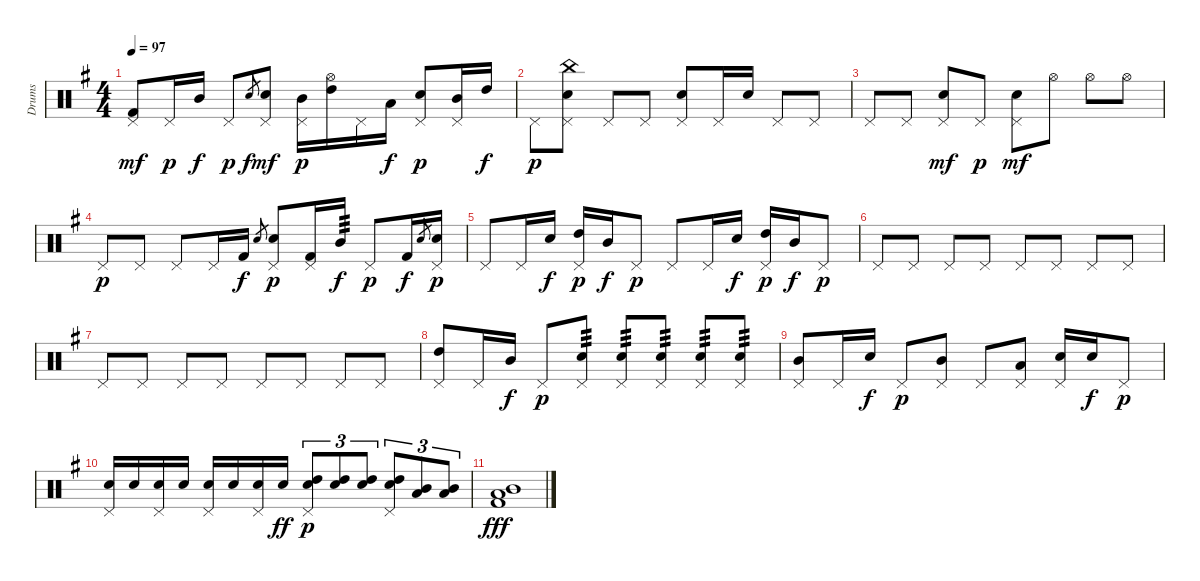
\track ("Drums" "Drums") {instrument percussion}
\staff {score}
\articulation defaults
\ts (4 4)
\tempo 97
\clef neutral
\ks g
("Pedal Hi-Hat (hit)" "Kick (hit) 2").8{dy mf} "Pedal Hi-Hat (hit)".16{dy p} "Mid Tom (hit)".16{dy f} "Pedal Hi-Hat (hit)".8{dy p} "Electric Snare (hit)".8{gr dy f} ("Pedal Hi-Hat (hit)" "Electric Snare (hit)").8{dy mf} ("Pedal Hi-Hat (hit)" "Mid Tom (hit)").16{dy p} ("Hi-Hat (open)" "High Tom (hit)").16 "Pedal Hi-Hat (hit)".16 "Low Tom (hit)".16{dy f} ("Pedal Hi-Hat (hit)" "Electric Snare (hit)").8{dy p} ("Pedal Hi-Hat (hit)" "Mid Tom (hit)").16 "High Tom (hit)".16{dy f} |
"Pedal Hi-Hat (hit)".8{dy p} ("Pedal Hi-Hat (hit)" "Electric Snare (hit)" "China (hit)").8 "Pedal Hi-Hat (hit)".8 "Pedal Hi-Hat (hit)".8 ("Pedal Hi-Hat (hit)" "Electric Snare (hit)").8 "Pedal Hi-Hat (hit)".16 "Electric Snare (hit)".16 "Pedal Hi-Hat (hit)".8 "Pedal Hi-Hat (hit)".8 |
"Pedal Hi-Hat (hit)".8 "Pedal Hi-Hat (hit)".8 ("Pedal Hi-Hat (hit)" "Electric Snare (hit)").8{dy mf} "Pedal Hi-Hat (hit)".8{dy p} ("Pedal Hi-Hat (hit)" "Electric Snare (hit)").8{dy mf} "Hi-Hat (open)".8 "Hi-Hat (open)".8 "Hi-Hat (open)".8 |
"Pedal Hi-Hat (hit)".8{dy p} "Pedal Hi-Hat (hit)".8 "Pedal Hi-Hat (hit)".8 "Pedal Hi-Hat (hit)".16 "Kick (hit) 2".16{dy f} "Electric Snare (hit)".8{gr} ("Pedal Hi-Hat (hit)" "Electric Snare (hit)").8{dy p} ("Pedal Hi-Hat (hit)" "Kick (hit) 2").16 "Mid Tom (hit)".16{tp 3 dy f} "Pedal Hi-Hat (hit)".8{dy p} "Kick (hit) 2".16{dy f} "Electric Snare (hit)".8{gr} ("Pedal Hi-Hat (hit)" "Electric Snare (hit)").16{dy p} |
"Pedal Hi-Hat (hit)".8 "Pedal Hi-Hat (hit)".16 "Electric Snare (hit)".16{dy f} ("Pedal Hi-Hat (hit)" "High Tom (hit)").16{dy p} "Mid Tom (hit)".16{dy f} "Pedal Hi-Hat (hit)".8{dy p} "Pedal Hi-Hat (hit)".8 "Pedal Hi-Hat (hit)".16 "Electric Snare (hit)".16{dy f} ("Pedal Hi-Hat (hit)" "High Tom (hit)").16{dy p} "Mid Tom (hit)".16{dy f} "Pedal Hi-Hat (hit)".8{dy p} |
"Pedal Hi-Hat (hit)".8 "Pedal Hi-Hat (hit)".8 "Pedal Hi-Hat (hit)".8 "Pedal Hi-Hat (hit)".8 "Pedal Hi-Hat (hit)".8 "Pedal Hi-Hat (hit)".8 "Pedal Hi-Hat (hit)".8 "Pedal Hi-Hat (hit)".8 |
"Pedal Hi-Hat (hit)".8 "Pedal Hi-Hat (hit)".8 "Pedal Hi-Hat (hit)".8 "Pedal Hi-Hat (hit)".8 "Pedal Hi-Hat (hit)".8 "Pedal Hi-Hat (hit)".8 "Pedal Hi-Hat (hit)".8 "Pedal Hi-Hat (hit)".8 |
("Pedal Hi-Hat (hit)" "High Tom (hit)").8 "Pedal Hi-Hat (hit)".16 "Mid Tom (hit)".16{dy f} "Pedal Hi-Hat (hit)".8{dy p} ("Pedal Hi-Hat (hit)" "Electric Snare (hit)").8{tp 3} ("Pedal Hi-Hat (hit)" "Electric Snare (hit)").8{tp 3} ("Pedal Hi-Hat (hit)" "Electric Snare (hit)").8{tp 3} ("Pedal Hi-Hat (hit)" "Electric Snare (hit)").8{tp 3} ("Pedal Hi-Hat (hit)" "Electric Snare (hit)").8{tp 3} |
("Pedal Hi-Hat (hit)" "Mid Tom (hit)").8 "Pedal Hi-Hat (hit)".16 "Electric Snare (hit)".16{dy f} "Pedal Hi-Hat (hit)".8{dy p} ("Pedal Hi-Hat (hit)" "Mid Tom (hit)").8 "Pedal Hi-Hat (hit)".8 ("Pedal Hi-Hat (hit)" "Low Tom (hit)").8 ("Pedal Hi-Hat (hit)" "Electric Snare (hit)").16 "Electric Snare (hit)".16{dy f} "Pedal Hi-Hat (hit)".8{dy p} |
("Electric Snare (hit)" "Pedal Hi-Hat (hit)").16 "Electric Snare (hit)".16 ("Electric Snare (hit)" "Pedal Hi-Hat (hit)").16 "Electric Snare (hit)".16 ("Electric Snare (hit)" "Pedal Hi-Hat (hit)").16 "Electric Snare (hit)".16 ("Electric Snare (hit)" "Pedal Hi-Hat (hit)").16 "Electric Snare (hit)".16{dy ff} ("Electric Snare (hit)" "Pedal Hi-Hat (hit)" "High Tom (hit)").8{tu (3 2) dy p} ("Electric Snare (hit)" "High Tom (hit)").8{tu (3 2)} ("Electric Snare (hit)" "High Tom (hit)").8{tu (3 2)} ("Electric Snare (hit)" "Pedal Hi-Hat (hit)" "High Tom (hit)").8{tu (3 2)} ("Mid Tom (hit)" "Low Tom (hit)").8{tu (3 2)} ("Mid Tom (hit)" "Low Tom (hit)").8{tu (3 2)} |
("Kick (hit) 2" "Low Tom (hit)" "Mid Tom (hit)").1{dy fff}
